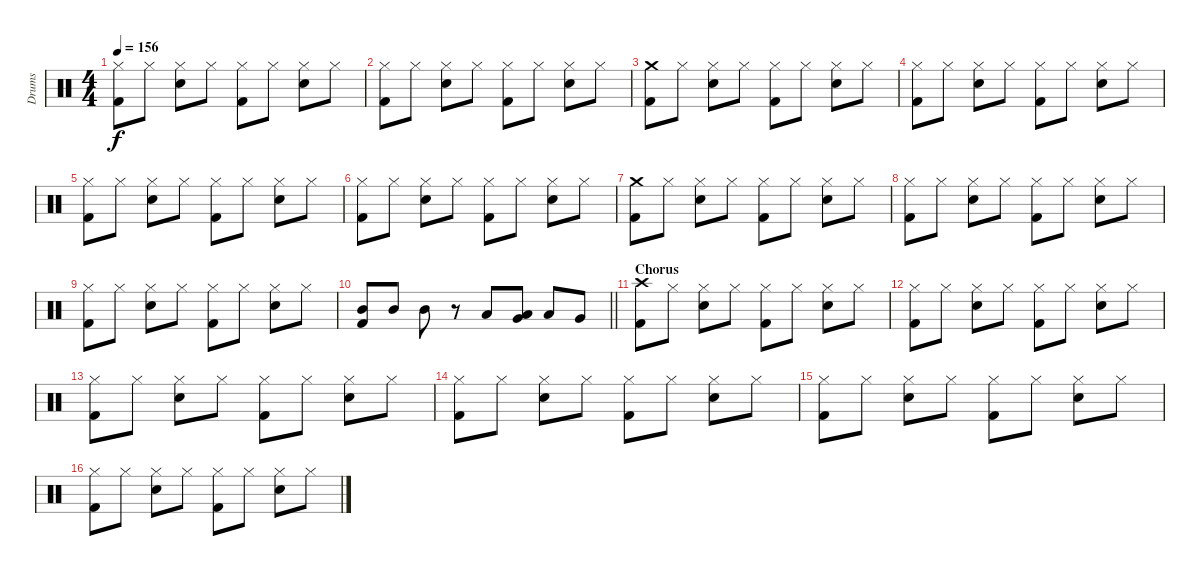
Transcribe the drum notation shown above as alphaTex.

\track ("Drums" "Drums") {instrument percussion}
\staff {score}
\articulation defaults
\ts (4 4)
\tempo 156
\clef neutral
\ks c
("Hi-Hat (closed)" "Kick (hit) 2").8{dy f} "Hi-Hat (closed)".8 ("Hi-Hat (closed)" "Electric Snare (hit)").8 "Hi-Hat (closed)".8 ("Hi-Hat (closed)" "Kick (hit) 2").8 "Hi-Hat (closed)".8 ("Hi-Hat (closed)" "Electric Snare (hit)").8 "Hi-Hat (closed)".8 |
("Hi-Hat (closed)" "Kick (hit) 2").8 "Hi-Hat (closed)".8 ("Hi-Hat (closed)" "Electric Snare (hit)").8 "Hi-Hat (closed)".8 ("Hi-Hat (closed)" "Kick (hit) 2").8 "Hi-Hat (closed)".8 ("Hi-Hat (closed)" "Electric Snare (hit)").8 "Hi-Hat (closed)".8 |
("Crash medium (hit)" "Kick (hit) 2").8 "Hi-Hat (closed)".8 ("Hi-Hat (closed)" "Electric Snare (hit)").8 "Hi-Hat (closed)".8 ("Hi-Hat (closed)" "Kick (hit) 2").8 "Hi-Hat (closed)".8 ("Hi-Hat (closed)" "Electric Snare (hit)").8 "Hi-Hat (closed)".8 |
("Hi-Hat (closed)" "Kick (hit) 2").8 "Hi-Hat (closed)".8 ("Hi-Hat (closed)" "Electric Snare (hit)").8 "Hi-Hat (closed)".8 ("Hi-Hat (closed)" "Kick (hit) 2").8 "Hi-Hat (closed)".8 ("Hi-Hat (closed)" "Electric Snare (hit)").8 "Hi-Hat (closed)".8 |
("Hi-Hat (closed)" "Kick (hit) 2").8 "Hi-Hat (closed)".8 ("Hi-Hat (closed)" "Electric Snare (hit)").8 "Hi-Hat (closed)".8 ("Hi-Hat (closed)" "Kick (hit) 2").8 "Hi-Hat (closed)".8 ("Hi-Hat (closed)" "Electric Snare (hit)").8 "Hi-Hat (closed)".8 |
("Hi-Hat (closed)" "Kick (hit) 2").8 "Hi-Hat (closed)".8 ("Hi-Hat (closed)" "Electric Snare (hit)").8 "Hi-Hat (closed)".8 ("Hi-Hat (closed)" "Kick (hit) 2").8 "Hi-Hat (closed)".8 ("Hi-Hat (closed)" "Electric Snare (hit)").8 "Hi-Hat (closed)".8 |
("Crash medium (hit)" "Kick (hit) 2").8 "Hi-Hat (closed)".8 ("Hi-Hat (closed)" "Electric Snare (hit)").8 "Hi-Hat (closed)".8 ("Hi-Hat (closed)" "Kick (hit) 2").8 "Hi-Hat (closed)".8 ("Hi-Hat (closed)" "Electric Snare (hit)").8 "Hi-Hat (closed)".8 |
("Hi-Hat (closed)" "Kick (hit) 2").8 "Hi-Hat (closed)".8 ("Hi-Hat (closed)" "Electric Snare (hit)").8 "Hi-Hat (closed)".8 ("Hi-Hat (closed)" "Kick (hit) 2").8 "Hi-Hat (closed)".8 ("Hi-Hat (closed)" "Electric Snare (hit)").8 "Hi-Hat (closed)".8 |
("Hi-Hat (closed)" "Kick (hit) 2").8 "Hi-Hat (closed)".8 ("Hi-Hat (closed)" "Electric Snare (hit)").8 "Hi-Hat (closed)".8 ("Hi-Hat (closed)" "Kick (hit) 2").8 "Hi-Hat (closed)".8 ("Hi-Hat (closed)" "Electric Snare (hit)").8 "Hi-Hat (closed)".8 |
\barLineRight lightlight
("Mid Tom (hit)" "Kick (hit) 2").8 "Mid Tom (hit)".8 "Mid Tom (hit)".8 r.8 "Low Tom (hit)".8 ("Low Tom (hit)" "Very Low Tom (hit)").8 "Low Tom (hit)".8 "Very Low Tom (hit)".8 |
\section ("" "Chorus")
("Crash high (hit)" "Kick (hit) 2").8 "Hi-Hat (closed)".8 ("Hi-Hat (closed)" "Electric Snare (hit)").8 "Hi-Hat (closed)".8 ("Hi-Hat (closed)" "Kick (hit) 2").8 "Hi-Hat (closed)".8 ("Hi-Hat (closed)" "Electric Snare (hit)").8 "Hi-Hat (closed)".8 |
("Hi-Hat (closed)" "Kick (hit) 2").8 "Hi-Hat (closed)".8 ("Hi-Hat (closed)" "Electric Snare (hit)").8 "Hi-Hat (closed)".8 ("Hi-Hat (closed)" "Kick (hit) 2").8 "Hi-Hat (closed)".8 ("Hi-Hat (closed)" "Electric Snare (hit)").8 "Hi-Hat (closed)".8 |
("Hi-Hat (closed)" "Kick (hit) 2").8 "Hi-Hat (closed)".8 ("Hi-Hat (closed)" "Electric Snare (hit)").8 "Hi-Hat (closed)".8 ("Hi-Hat (closed)" "Kick (hit) 2").8 "Hi-Hat (closed)".8 ("Hi-Hat (closed)" "Electric Snare (hit)").8 "Hi-Hat (closed)".8 |
("Hi-Hat (closed)" "Kick (hit) 2").8 "Hi-Hat (closed)".8 ("Hi-Hat (closed)" "Electric Snare (hit)").8 "Hi-Hat (closed)".8 ("Hi-Hat (closed)" "Kick (hit) 2").8 "Hi-Hat (closed)".8 ("Hi-Hat (closed)" "Electric Snare (hit)").8 "Hi-Hat (closed)".8 |
("Hi-Hat (closed)" "Kick (hit) 2").8 "Hi-Hat (closed)".8 ("Hi-Hat (closed)" "Electric Snare (hit)").8 "Hi-Hat (closed)".8 ("Hi-Hat (closed)" "Kick (hit) 2").8 "Hi-Hat (closed)".8 ("Hi-Hat (closed)" "Electric Snare (hit)").8 "Hi-Hat (closed)".8 |
("Hi-Hat (closed)" "Kick (hit) 2").8 "Hi-Hat (closed)".8 ("Hi-Hat (closed)" "Electric Snare (hit)").8 "Hi-Hat (closed)".8 ("Hi-Hat (closed)" "Kick (hit) 2").8 "Hi-Hat (closed)".8 ("Hi-Hat (closed)" "Electric Snare (hit)").8 "Hi-Hat (closed)".8
